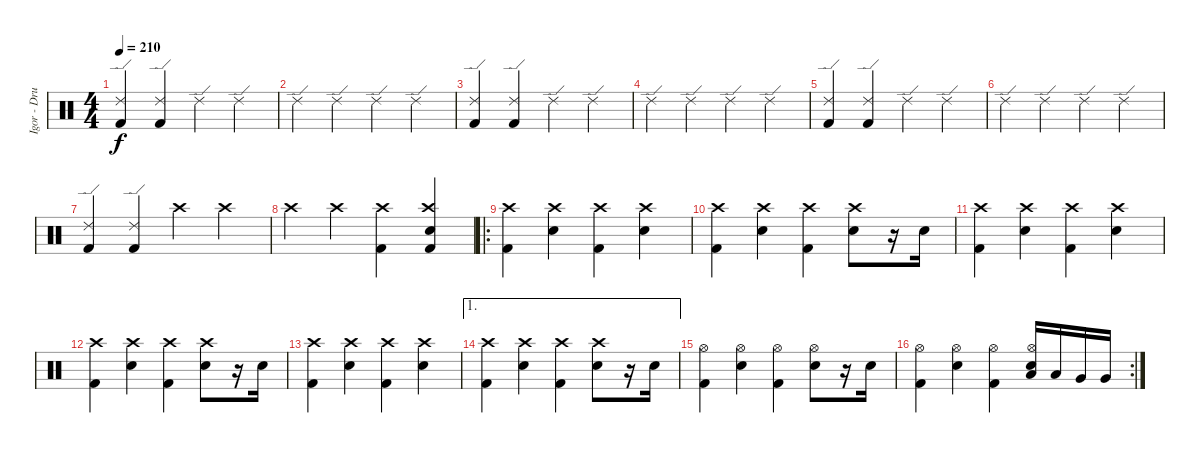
\track ("Igor - Drums" "Igor - Dru") {instrument percussion}
\staff {score}
\articulation defaults
\ts (4 4)
\tempo 210
\clef neutral
\ks c
("Ride (edge) 2" "Kick (hit) 2").4{dy f} ("Ride (edge) 2" "Kick (hit) 2").4 "Ride (edge) 2".4 "Ride (edge) 2".4 |
"Ride (edge) 2".4 "Ride (edge) 2".4 "Ride (edge) 2".4 "Ride (edge) 2".4 |
("Ride (edge) 2" "Kick (hit) 2").4 ("Ride (edge) 2" "Kick (hit) 2").4 "Ride (edge) 2".4 "Ride (edge) 2".4 |
"Ride (edge) 2".4 "Ride (edge) 2".4 "Ride (edge) 2".4 "Ride (edge) 2".4 |
("Ride (edge) 2" "Kick (hit) 2").4 ("Ride (edge) 2" "Kick (hit) 2").4 "Ride (edge) 2".4 "Ride (edge) 2".4 |
"Ride (edge) 2".4 "Ride (edge) 2".4 "Ride (edge) 2".4 "Ride (edge) 2".4 |
("Ride (edge) 2" "Kick (hit) 2").4 ("Ride (edge) 2" "Kick (hit) 2").4 "Crash high (hit)".4 "Crash high (hit)".4 |
"Crash high (hit)".4 "Crash high (hit)".4 ("Crash high (hit)" "Kick (hit) 2").4 ("Crash high (hit)" "Electric Snare (hit)" "Kick (hit) 2").4 |
\ro
("Crash high (hit)" "Kick (hit) 2").4 ("Crash high (hit)" "Snare (hit) 2").4 ("Crash high (hit)" "Kick (hit) 2").4 ("Crash high (hit)" "Snare (hit) 2").4 |
("Crash high (hit)" "Kick (hit) 2").4 ("Crash high (hit)" "Snare (hit) 2").4 ("Crash high (hit)" "Kick (hit) 2").4 ("Crash high (hit)" "Snare (hit) 2").8 r.16 "Snare (hit) 2".16 |
("Crash high (hit)" "Kick (hit) 2").4 ("Crash high (hit)" "Snare (hit) 2").4 ("Crash high (hit)" "Kick (hit) 2").4 ("Crash high (hit)" "Snare (hit) 2").4 |
("Crash high (hit)" "Kick (hit) 2").4 ("Crash high (hit)" "Snare (hit) 2").4 ("Crash high (hit)" "Kick (hit) 2").4 ("Crash high (hit)" "Snare (hit) 2").8 r.16 "Snare (hit) 2".16 |
("Crash high (hit)" "Kick (hit) 2").4 ("Crash high (hit)" "Snare (hit) 2").4 ("Crash high (hit)" "Kick (hit) 2").4 ("Crash high (hit)" "Snare (hit) 2").4 |
\ae 1
("Crash high (hit)" "Kick (hit) 2").4 ("Crash high (hit)" "Snare (hit) 2").4 ("Crash high (hit)" "Kick (hit) 2").4 ("Crash high (hit)" "Snare (hit) 2").8 r.16 "Snare (hit) 2".16 |
("Hi-Hat (open)" "Kick (hit) 2").4 ("Hi-Hat (open)" "Snare (hit) 2").4 ("Hi-Hat (open)" "Kick (hit) 2").4 ("Hi-Hat (open)" "Snare (hit) 2").8 r.16 "Snare (hit) 2".16 |
\rc 2
("Hi-Hat (open)" "Kick (hit) 2").4 ("Hi-Hat (open)" "Snare (hit) 2").4 ("Hi-Hat (open)" "Kick (hit) 2").4 ("Hi-Hat (open)" "Low Tom (hit)" "Snare (hit) 2").16 "Low Tom (hit)".16 "Very Low Tom (hit)".16 "Very Low Tom (hit)".16
